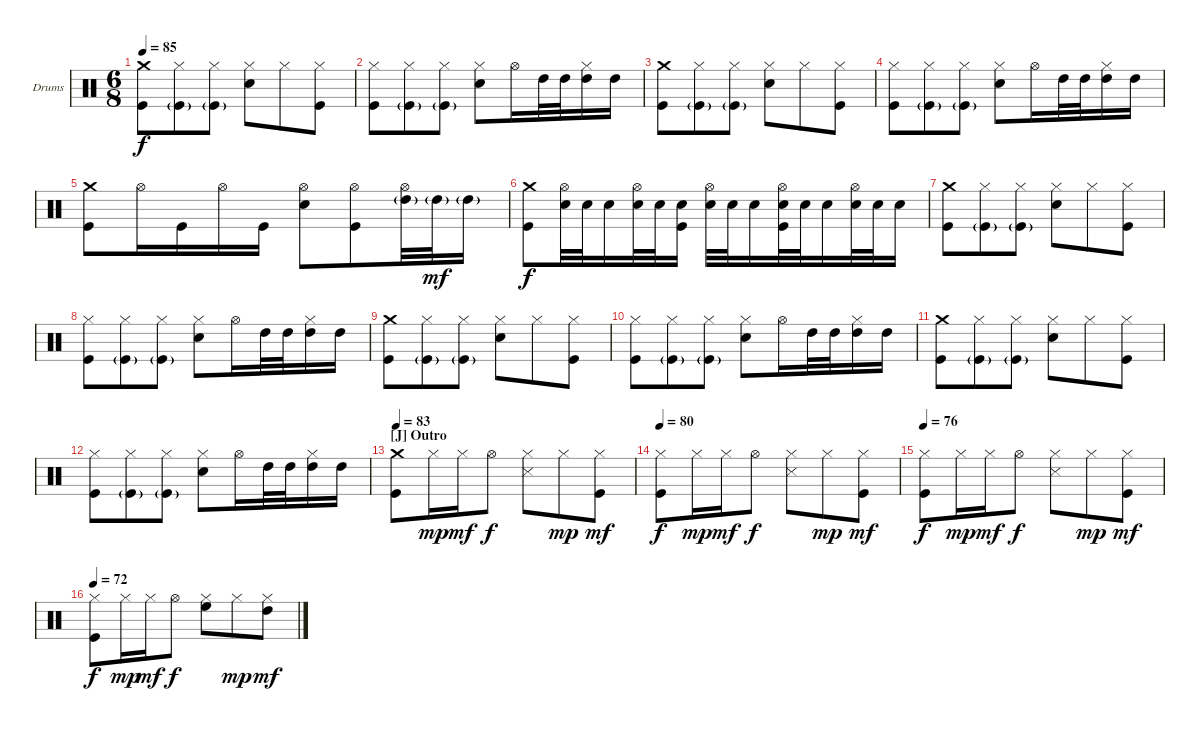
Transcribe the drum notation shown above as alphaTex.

\defaultSystemsLayout 4
\bracketExtendMode groupsimilarinstruments
\firstSystemTrackNameOrientation horizontal
\otherSystemsTrackNameOrientation horizontal
\track ("Drums" "Drums") {instrument percussion}
\staff {score}
\articulation defaults
\ts (6 8)
\tempo 85
\clef neutral
\ks c
("Crash medium (hit)" "Kick (hit)").8{dy f} ("Hi-Hat (closed)" "Kick (hit)"{g}).8 ("Hi-Hat (closed)" "Kick (hit)"{g}).8 ("Hi-Hat (closed)" "Snare (hit) 2").8 "Hi-Hat (closed)".8 ("Hi-Hat (closed)" "Kick (hit)").8 |
("Hi-Hat (closed)" "Kick (hit)").8 ("Hi-Hat (closed)" "Kick (hit)"{g}).8 ("Hi-Hat (closed)" "Kick (hit)"{g}).8 ("Hi-Hat (closed)" "Snare (hit) 2").8 "Hi-Hat (open)".16 "High Tom (hit)".32 "High Tom (hit)".32 ("Hi-Hat (closed)" "High Tom (hit)").16 "High Tom (hit)".16 |
("Crash medium (hit)" "Kick (hit)").8 ("Hi-Hat (closed)" "Kick (hit)"{g}).8 ("Hi-Hat (closed)" "Kick (hit)"{g}).8 ("Hi-Hat (closed)" "Snare (hit) 2").8 "Hi-Hat (closed)".8 ("Hi-Hat (closed)" "Kick (hit)").8 |
("Hi-Hat (closed)" "Kick (hit)").8 ("Hi-Hat (closed)" "Kick (hit)"{g}).8 ("Hi-Hat (closed)" "Kick (hit)"{g}).8 ("Hi-Hat (closed)" "Snare (hit) 2").8 "Hi-Hat (open)".16 "High Tom (hit)".32 "High Tom (hit)".32 ("Hi-Hat (closed)" "High Tom (hit)").16 "High Tom (hit)".16 |
("Crash medium (hit)" "Kick (hit)").8 "Hi-Hat (open)".16 "Kick (hit)".16 "Hi-Hat (open)".16 "Kick (hit)".16 ("Hi-Hat (open)" "Snare (hit) 2").8 ("Hi-Hat (open)" "Kick (hit)").8 ("Hi-Hat (open)" "High Tom (hit)"{g}).32 "High Tom (hit)"{g}.32{dy mf} "High Tom (hit)"{g}.16 |
("Crash medium (hit)" "Kick (hit)").8{dy f} ("Hi-Hat (open)" "Snare (hit) 2").32 "Snare (hit) 2".32 "Snare (hit) 2".16 ("Hi-Hat (open)" "Snare (hit) 2").32 "Snare (hit) 2".32 ("Snare (hit) 2" "Kick (hit)").16 ("Hi-Hat (open)" "Snare (hit) 2").32 "Snare (hit) 2".32 "Snare (hit) 2".16 ("Hi-Hat (open)" "Snare (hit) 2" "Kick (hit)").32 "Snare (hit) 2".32 "Snare (hit) 2".16 ("Hi-Hat (open)" "Snare (hit) 2").32 "Snare (hit) 2".32 "Snare (hit) 2".16 |
("Crash medium (hit)" "Kick (hit)").8 ("Hi-Hat (closed)" "Kick (hit)"{g}).8 ("Hi-Hat (closed)" "Kick (hit)"{g}).8 ("Hi-Hat (closed)" "Snare (hit) 2").8 "Hi-Hat (closed)".8 ("Hi-Hat (closed)" "Kick (hit)").8 |
("Hi-Hat (closed)" "Kick (hit)").8 ("Hi-Hat (closed)" "Kick (hit)"{g}).8 ("Hi-Hat (closed)" "Kick (hit)"{g}).8 ("Hi-Hat (closed)" "Snare (hit) 2").8 "Hi-Hat (open)".16 "High Tom (hit)".32 "High Tom (hit)".32 ("Hi-Hat (closed)" "High Tom (hit)").16 "High Tom (hit)".16 |
("Crash medium (hit)" "Kick (hit)").8 ("Hi-Hat (closed)" "Kick (hit)"{g}).8 ("Hi-Hat (closed)" "Kick (hit)"{g}).8 ("Hi-Hat (closed)" "Snare (hit) 2").8 "Hi-Hat (closed)".8 ("Hi-Hat (closed)" "Kick (hit)").8 |
("Hi-Hat (closed)" "Kick (hit)").8 ("Hi-Hat (closed)" "Kick (hit)"{g}).8 ("Hi-Hat (closed)" "Kick (hit)"{g}).8 ("Hi-Hat (closed)" "Snare (hit) 2").8 "Hi-Hat (open)".16 "High Tom (hit)".32 "High Tom (hit)".32 ("Hi-Hat (closed)" "High Tom (hit)").16 "High Tom (hit)".16 |
("Crash medium (hit)" "Kick (hit)").8 ("Hi-Hat (closed)" "Kick (hit)"{g}).8 ("Hi-Hat (closed)" "Kick (hit)"{g}).8 ("Hi-Hat (closed)" "Snare (hit) 2").8 "Hi-Hat (closed)".8 ("Hi-Hat (closed)" "Kick (hit)").8 |
("Hi-Hat (closed)" "Kick (hit)").8 ("Hi-Hat (closed)" "Kick (hit)"{g}).8 ("Hi-Hat (closed)" "Kick (hit)"{g}).8 ("Hi-Hat (closed)" "Snare (hit) 2").8 "Hi-Hat (open)".16 "High Tom (hit)".32 "High Tom (hit)".32 ("Hi-Hat (closed)" "High Tom (hit)").16 "High Tom (hit)".16 |
\section ("J" "Outro")
\tempo 83
("Crash medium (hit)" "Kick (hit)").8 "Hi-Hat (closed)".16{dy mp} "Hi-Hat (closed)".16{dy mf} "Hi-Hat (open)".8{dy f} ("Hi-Hat (closed)" "Snare (side stick) 3").8 "Hi-Hat (closed)".8{dy mp} ("Hi-Hat (closed)" "Kick (hit)").8{dy mf} |
\tempo 80
("Hi-Hat (closed)" "Kick (hit)").8{dy f} "Hi-Hat (closed)".16{dy mp} "Hi-Hat (closed)".16{dy mf} "Hi-Hat (open)".8{dy f} ("Hi-Hat (closed)" "Snare (side stick) 3").8 "Hi-Hat (closed)".8{dy mp} ("Hi-Hat (closed)" "Kick (hit)").8{dy mf} |
\tempo 76
("Hi-Hat (closed)" "Kick (hit)").8{dy f} "Hi-Hat (closed)".16{dy mp} "Hi-Hat (closed)".16{dy mf} "Hi-Hat (open)".8{dy f} ("Hi-Hat (closed)" "Snare (side stick) 3").8 "Hi-Hat (closed)".8{dy mp} ("Hi-Hat (closed)" "Kick (hit)").8{dy mf} |
\tempo 72
("Hi-Hat (closed)" "Kick (hit)").8{dy f} "Hi-Hat (closed)".16{dy mp} "Hi-Hat (closed)".16{dy mf} "Hi-Hat (open)".8{dy f} ("Hi-Hat (closed)" "High Floor Tom (hit)").8 "Hi-Hat (closed)".8{dy mp} ("Hi-Hat (closed)" "High Tom (hit)").8{dy mf}
